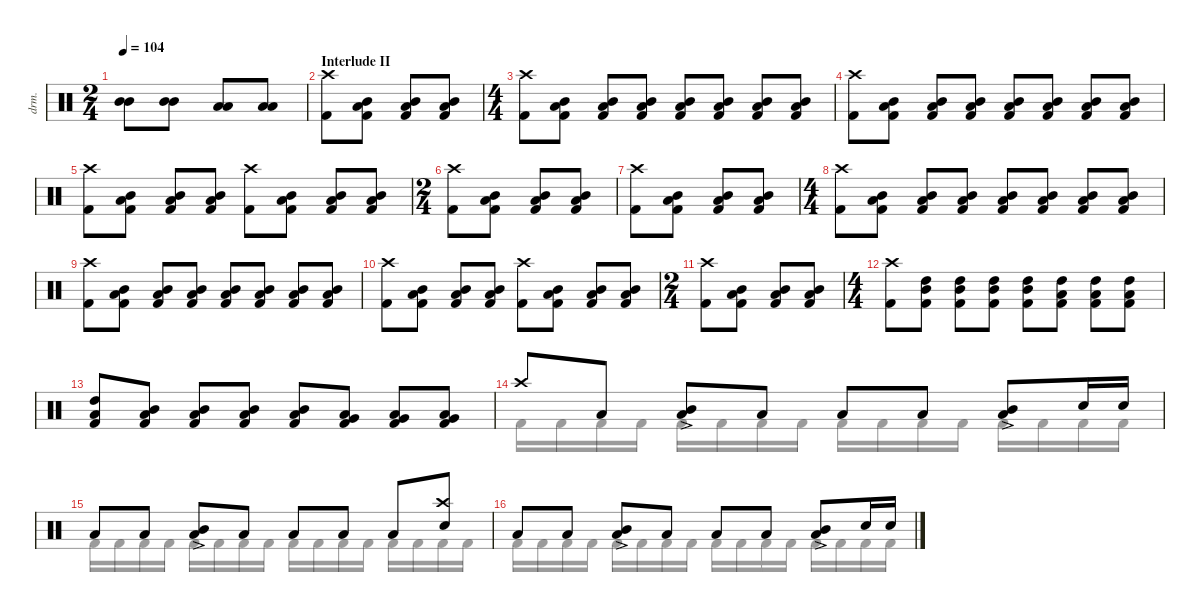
\defaultSystemsLayout 4
\hideDynamics
\bracketExtendMode nobrackets
\track ("Drums" "drm.") {defaultSystemsLayout 4 multiBarRest instrument percussion}
\staff
\articulation defaults
\voice
\ts (2 4)
\beaming (8 2 2)
\tempo 104
\clef neutral
\ks c
("Mid Tom (hit)" "Mid Tom (hit)").8{dy ff} ("Mid Tom (hit)" "Mid Tom (hit)").8 ("Low Tom (hit)" "Low Tom (hit)").8 ("Low Tom (hit)" "Low Tom (hit)").8 |
\section ("" "Interlude II")
("Kick (hit) 2" "Crash high (hit)").8{dy f} ("Low Tom (hit)" "Mid Tom (hit)" "Kick (hit) 2").8 ("Low Tom (hit)" "Mid Tom (hit)" "Kick (hit) 2").8 ("Low Tom (hit)" "Mid Tom (hit)" "Kick (hit) 2").8 |
\ts (4 4)
\beaming (8 2 2 2 2)
("Kick (hit) 2" "Crash high (hit)").8 ("Low Tom (hit)" "Mid Tom (hit)" "Kick (hit) 2").8 ("Low Tom (hit)" "Mid Tom (hit)" "Kick (hit) 2").8 ("Low Tom (hit)" "Mid Tom (hit)" "Kick (hit) 2").8 ("Low Tom (hit)" "Mid Tom (hit)" "Kick (hit) 2").8 ("Low Tom (hit)" "Mid Tom (hit)" "Kick (hit) 2").8 ("Low Tom (hit)" "Mid Tom (hit)" "Kick (hit) 2").8 ("Low Tom (hit)" "Mid Tom (hit)" "Kick (hit) 2").8 |
("Kick (hit) 2" "Crash high (hit)").8 ("Low Tom (hit)" "Mid Tom (hit)" "Kick (hit) 2").8 ("Low Tom (hit)" "Mid Tom (hit)" "Kick (hit) 2").8 ("Low Tom (hit)" "Mid Tom (hit)" "Kick (hit) 2").8 ("Low Tom (hit)" "Mid Tom (hit)" "Kick (hit) 2").8 ("Low Tom (hit)" "Mid Tom (hit)" "Kick (hit) 2").8 ("Low Tom (hit)" "Mid Tom (hit)" "Kick (hit) 2").8 ("Low Tom (hit)" "Mid Tom (hit)" "Kick (hit) 2").8 |
("Kick (hit) 2" "Crash high (hit)").8 ("Low Tom (hit)" "Mid Tom (hit)" "Kick (hit) 2").8 ("Low Tom (hit)" "Mid Tom (hit)" "Kick (hit) 2").8 ("Low Tom (hit)" "Mid Tom (hit)" "Kick (hit) 2").8 ("Kick (hit) 2" "Crash high (hit)").8 ("Low Tom (hit)" "Mid Tom (hit)" "Kick (hit) 2").8 ("Low Tom (hit)" "Mid Tom (hit)" "Kick (hit) 2").8 ("Low Tom (hit)" "Mid Tom (hit)" "Kick (hit) 2").8 |
\ts (2 4)
\beaming (8 2 2)
("Kick (hit) 2" "Crash high (hit)").8 ("Low Tom (hit)" "Mid Tom (hit)" "Kick (hit) 2").8 ("Low Tom (hit)" "Mid Tom (hit)" "Kick (hit) 2").8 ("Low Tom (hit)" "Mid Tom (hit)" "Kick (hit) 2").8 |
("Kick (hit) 2" "Crash high (hit)").8 ("Low Tom (hit)" "Mid Tom (hit)" "Kick (hit) 2").8 ("Low Tom (hit)" "Mid Tom (hit)" "Kick (hit) 2").8 ("Low Tom (hit)" "Mid Tom (hit)" "Kick (hit) 2").8 |
\ts (4 4)
\beaming (8 2 2 2 2)
("Kick (hit) 2" "Crash high (hit)").8 ("Low Tom (hit)" "Mid Tom (hit)" "Kick (hit) 2").8 ("Low Tom (hit)" "Mid Tom (hit)" "Kick (hit) 2").8 ("Low Tom (hit)" "Mid Tom (hit)" "Kick (hit) 2").8 ("Low Tom (hit)" "Mid Tom (hit)" "Kick (hit) 2").8 ("Low Tom (hit)" "Mid Tom (hit)" "Kick (hit) 2").8 ("Low Tom (hit)" "Mid Tom (hit)" "Kick (hit) 2").8 ("Low Tom (hit)" "Mid Tom (hit)" "Kick (hit) 2").8 |
("Kick (hit) 2" "Crash high (hit)").8 ("Low Tom (hit)" "Mid Tom (hit)" "Kick (hit) 2").8 ("Low Tom (hit)" "Mid Tom (hit)" "Kick (hit) 2").8 ("Low Tom (hit)" "Mid Tom (hit)" "Kick (hit) 2").8 ("Low Tom (hit)" "Mid Tom (hit)" "Kick (hit) 2").8 ("Low Tom (hit)" "Mid Tom (hit)" "Kick (hit) 2").8 ("Low Tom (hit)" "Mid Tom (hit)" "Kick (hit) 2").8 ("Low Tom (hit)" "Mid Tom (hit)" "Kick (hit) 2").8 |
("Kick (hit) 2" "Crash high (hit)").8 ("Low Tom (hit)" "Mid Tom (hit)" "Kick (hit) 2").8 ("Low Tom (hit)" "Mid Tom (hit)" "Kick (hit) 2").8 ("Low Tom (hit)" "Mid Tom (hit)" "Kick (hit) 2").8 ("Kick (hit) 2" "Crash high (hit)").8 ("Low Tom (hit)" "Mid Tom (hit)" "Kick (hit) 2").8 ("Low Tom (hit)" "Mid Tom (hit)" "Kick (hit) 2").8 ("Low Tom (hit)" "Mid Tom (hit)" "Kick (hit) 2").8 |
\ts (2 4)
\beaming (8 2 2)
("Kick (hit) 2" "Crash high (hit)").8 ("Low Tom (hit)" "Mid Tom (hit)" "Kick (hit) 2").8 ("Low Tom (hit)" "Mid Tom (hit)" "Kick (hit) 2").8 ("Low Tom (hit)" "Mid Tom (hit)" "Kick (hit) 2").8 |
\ts (4 4)
\beaming (8 2 2 2 2)
("Kick (hit) 2" "Crash high (hit)").8 ("Kick (hit) 2" "Mid Tom (hit)" "High Tom (hit)").8 ("Kick (hit) 2" "High Tom (hit)" "Mid Tom (hit)").8 ("Kick (hit) 2" "Mid Tom (hit)" "High Tom (hit)").8 ("Kick (hit) 2" "Mid Tom (hit)" "High Tom (hit)").8 ("Kick (hit) 2" "High Tom (hit)" "Low Tom (hit)").8 ("Kick (hit) 2" "Low Tom (hit)" "High Tom (hit)").8 ("Kick (hit) 2" "Low Tom (hit)" "High Tom (hit)").8 |
("Kick (hit) 2" "Low Tom (hit)" "High Tom (hit)").8 ("Kick (hit) 2" "Low Tom (hit)" "Mid Tom (hit)").8 ("Kick (hit) 2" "Low Tom (hit)" "Mid Tom (hit)").8 ("Kick (hit) 2" "Low Tom (hit)" "Mid Tom (hit)").8 ("Kick (hit) 2" "Low Tom (hit)" "Mid Tom (hit)").8 ("Kick (hit) 2" "Low Tom (hit)" "Very Low Tom (hit)").8 ("Kick (hit) 2" "Low Tom (hit)" "Very Low Tom (hit)").8 ("Kick (hit) 2" "Low Tom (hit)" "Very Low Tom (hit)").8 |
"Crash high (hit)".8 "Low Tom (hit)".8{dy fff} ("Low Tom (hit)" "Mid Tom (hit)"{ac}).8 "Low Tom (hit)".8 "Low Tom (hit)".8 "Low Tom (hit)".8 ("Low Tom (hit)" "Mid Tom (hit)"{ac}).8 "Snare (hit) 2".16{dy f} "Snare (hit) 2".16 |
"Low Tom (hit)".8{dy fff} "Low Tom (hit)".8 ("Low Tom (hit)" "Mid Tom (hit)"{ac}).8 "Low Tom (hit)".8 "Low Tom (hit)".8 "Low Tom (hit)".8 "Low Tom (hit)".8 ("Snare (hit) 2" "Crash high (hit)").8{dy f} |
"Low Tom (hit)".8{dy fff} "Low Tom (hit)".8 ("Low Tom (hit)" "Mid Tom (hit)"{ac}).8 "Low Tom (hit)".8 "Low Tom (hit)".8 "Low Tom (hit)".8 ("Low Tom (hit)" "Mid Tom (hit)"{ac}).8 "Snare (hit) 2".16{dy f} "Snare (hit) 2".16
\voice
\clef neutral
\ottava regular
\simile none
\ks c
|
|
|
|
|
|
|
|
|
|
|
|
|
"Kick (hit) 2".16 "Kick (hit) 2".16 "Kick (hit) 2".16 "Kick (hit) 2".16 "Kick (hit) 2".16 "Kick (hit) 2".16 "Kick (hit) 2".16 "Kick (hit) 2".16 "Kick (hit) 2".16 "Kick (hit) 2".16 "Kick (hit) 2".16 "Kick (hit) 2".16 "Kick (hit) 2".16 "Kick (hit) 2".16 "Kick (hit) 2".16 "Kick (hit) 2".16 |
"Kick (hit) 2".16 "Kick (hit) 2".16 "Kick (hit) 2".16 "Kick (hit) 2".16 "Kick (hit) 2".16 "Kick (hit) 2".16 "Kick (hit) 2".16 "Kick (hit) 2".16 "Kick (hit) 2".16 "Kick (hit) 2".16 "Kick (hit) 2".16 "Kick (hit) 2".16 "Kick (hit) 2".16 "Kick (hit) 2".16 "Kick (hit) 2".16 "Kick (hit) 2".16 |
"Kick (hit) 2".16 "Kick (hit) 2".16 "Kick (hit) 2".16 "Kick (hit) 2".16 "Kick (hit) 2".16 "Kick (hit) 2".16 "Kick (hit) 2".16 "Kick (hit) 2".16 "Kick (hit) 2".16 "Kick (hit) 2".16 "Kick (hit) 2".16 "Kick (hit) 2".16 "Kick (hit) 2".16 "Kick (hit) 2".16 "Kick (hit) 2".16 "Kick (hit) 2".16
